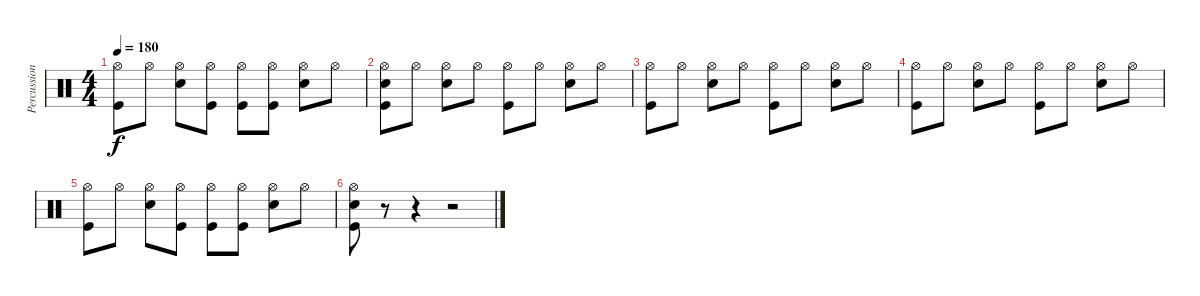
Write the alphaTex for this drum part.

\track ("Percussion" "Percussion") {instrument percussion}
\staff {score}
\articulation defaults
\ts (4 4)
\tempo 180
\clef neutral
\ks c
("Hi-Hat (open)" "Kick (hit)").8{dy f} "Hi-Hat (open)".8 ("Hi-Hat (open)" "Snare (hit) 2").8 ("Hi-Hat (open)" "Kick (hit)").8 ("Hi-Hat (open)" "Kick (hit)").8 ("Hi-Hat (open)" "Kick (hit)").8 ("Hi-Hat (open)" "Snare (hit) 2").8 "Hi-Hat (open)".8 |
("Hi-Hat (open)" "Snare (hit) 2" "Kick (hit)").8 "Hi-Hat (open)".8 ("Hi-Hat (open)" "Snare (hit) 2").8 "Hi-Hat (open)".8 ("Hi-Hat (open)" "Kick (hit)").8 "Hi-Hat (open)".8 ("Hi-Hat (open)" "Snare (hit) 2").8 "Hi-Hat (open)".8 |
("Hi-Hat (open)" "Kick (hit)").8 "Hi-Hat (open)".8 ("Hi-Hat (open)" "Snare (hit) 2").8 "Hi-Hat (open)".8 ("Hi-Hat (open)" "Kick (hit)").8 "Hi-Hat (open)".8 ("Hi-Hat (open)" "Snare (hit) 2").8 "Hi-Hat (open)".8 |
("Hi-Hat (open)" "Kick (hit)").8 "Hi-Hat (open)".8 ("Hi-Hat (open)" "Snare (hit) 2").8 "Hi-Hat (open)".8 ("Hi-Hat (open)" "Kick (hit)").8 "Hi-Hat (open)".8 ("Hi-Hat (open)" "Snare (hit) 2").8 "Hi-Hat (open)".8 |
("Hi-Hat (open)" "Kick (hit)").8 "Hi-Hat (open)".8 ("Hi-Hat (open)" "Snare (hit) 2").8 ("Hi-Hat (open)" "Kick (hit)").8 ("Hi-Hat (open)" "Kick (hit)").8 ("Hi-Hat (open)" "Kick (hit)").8 ("Hi-Hat (open)" "Snare (hit) 2").8 "Hi-Hat (open)".8 |
("Hi-Hat (open)" "Snare (hit) 2" "Kick (hit)").8 r.8 r.4 r.2
